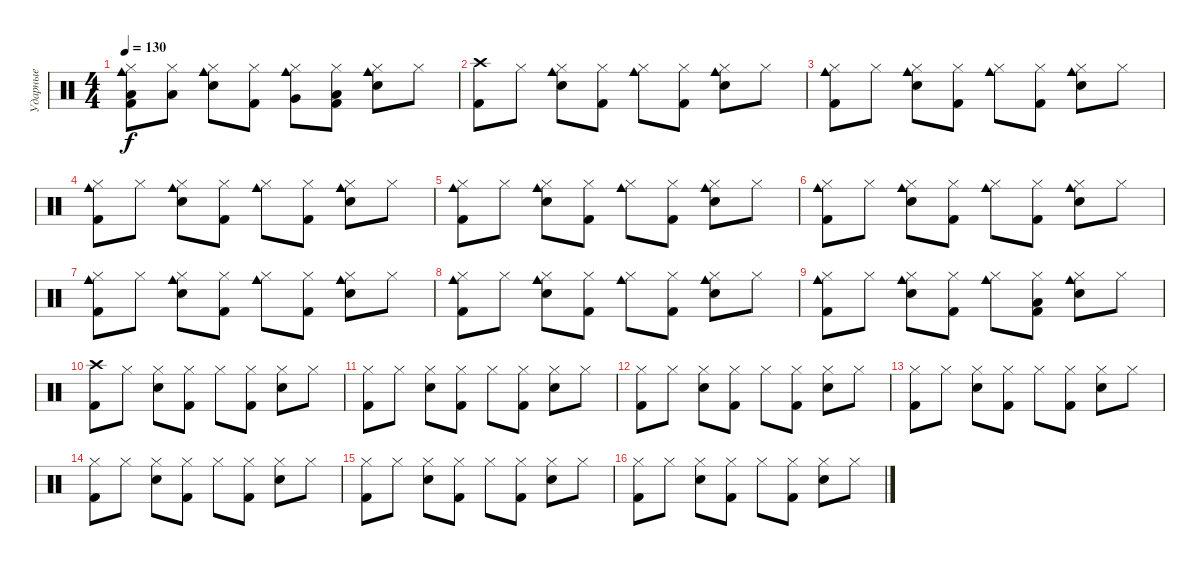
\track ("Ударные" "Ударные") {instrument percussion}
\staff {score}
\articulation defaults
\ts (4 4)
\tempo 130
\clef neutral
\ks c
("Hi-Hat (closed)" "Cowbell medium (hit)" "Low Tom (hit)" "Kick (hit) 2").8{dy f} ("Hi-Hat (closed)" "Low Tom (hit)").8 ("Hi-Hat (closed)" "Cowbell medium (hit)" "Snare (hit) 2").8 ("Hi-Hat (closed)" "Kick (hit) 2").8 ("Hi-Hat (closed)" "Cowbell medium (hit)" "Very Low Tom (hit)").8 ("Hi-Hat (closed)" "Low Floor Tom (hit)" "Kick (hit) 2").8 ("Hi-Hat (closed)" "Cowbell medium (hit)" "Snare (hit) 2").8 "Hi-Hat (closed)".8 |
("Crash high (hit)" "Kick (hit) 2").8 "Hi-Hat (closed)".8 ("Hi-Hat (closed)" "Cowbell medium (hit)" "Snare (hit) 2").8 ("Hi-Hat (closed)" "Kick (hit) 2").8 ("Hi-Hat (closed)" "Cowbell medium (hit)").8 ("Hi-Hat (closed)" "Kick (hit) 2").8 ("Hi-Hat (closed)" "Cowbell medium (hit)" "Snare (hit) 2").8 "Hi-Hat (closed)".8 |
("Hi-Hat (closed)" "Cowbell medium (hit)" "Kick (hit) 2").8 "Hi-Hat (closed)".8 ("Hi-Hat (closed)" "Cowbell medium (hit)" "Snare (hit) 2").8 ("Hi-Hat (closed)" "Kick (hit) 2").8 ("Hi-Hat (closed)" "Cowbell medium (hit)").8 ("Hi-Hat (closed)" "Kick (hit) 2").8 ("Hi-Hat (closed)" "Cowbell medium (hit)" "Snare (hit) 2").8 "Hi-Hat (closed)".8 |
("Hi-Hat (closed)" "Cowbell medium (hit)" "Kick (hit) 2").8 "Hi-Hat (closed)".8 ("Hi-Hat (closed)" "Cowbell medium (hit)" "Snare (hit) 2").8 ("Hi-Hat (closed)" "Kick (hit) 2").8 ("Hi-Hat (closed)" "Cowbell medium (hit)").8 ("Hi-Hat (closed)" "Kick (hit) 2").8 ("Hi-Hat (closed)" "Cowbell medium (hit)" "Snare (hit) 2").8 "Hi-Hat (closed)".8 |
("Hi-Hat (closed)" "Cowbell medium (hit)" "Kick (hit) 2").8 "Hi-Hat (closed)".8 ("Hi-Hat (closed)" "Cowbell medium (hit)" "Snare (hit) 2").8 ("Hi-Hat (closed)" "Kick (hit) 2").8 ("Hi-Hat (closed)" "Cowbell medium (hit)").8 ("Hi-Hat (closed)" "Kick (hit) 2").8 ("Hi-Hat (closed)" "Cowbell medium (hit)" "Snare (hit) 2").8 "Hi-Hat (closed)".8 |
("Hi-Hat (closed)" "Cowbell medium (hit)" "Kick (hit) 2").8 "Hi-Hat (closed)".8 ("Hi-Hat (closed)" "Cowbell medium (hit)" "Snare (hit) 2").8 ("Hi-Hat (closed)" "Kick (hit) 2").8 ("Hi-Hat (closed)" "Cowbell medium (hit)").8 ("Hi-Hat (closed)" "Kick (hit) 2").8 ("Hi-Hat (closed)" "Cowbell medium (hit)" "Snare (hit) 2").8 "Hi-Hat (closed)".8 |
("Hi-Hat (closed)" "Cowbell medium (hit)" "Kick (hit) 2").8 "Hi-Hat (closed)".8 ("Hi-Hat (closed)" "Cowbell medium (hit)" "Snare (hit) 2").8 ("Hi-Hat (closed)" "Kick (hit) 2").8 ("Hi-Hat (closed)" "Cowbell medium (hit)").8 ("Hi-Hat (closed)" "Kick (hit) 2").8 ("Hi-Hat (closed)" "Cowbell medium (hit)" "Snare (hit) 2").8 "Hi-Hat (closed)".8 |
("Hi-Hat (closed)" "Cowbell medium (hit)" "Kick (hit) 2").8 "Hi-Hat (closed)".8 ("Hi-Hat (closed)" "Cowbell medium (hit)" "Snare (hit) 2").8 ("Hi-Hat (closed)" "Kick (hit) 2").8 ("Hi-Hat (closed)" "Cowbell medium (hit)").8 ("Hi-Hat (closed)" "Kick (hit) 2").8 ("Hi-Hat (closed)" "Cowbell medium (hit)" "Snare (hit) 2").8 "Hi-Hat (closed)".8 |
("Hi-Hat (closed)" "Cowbell medium (hit)" "Kick (hit) 2").8 "Hi-Hat (closed)".8 ("Hi-Hat (closed)" "Cowbell medium (hit)" "Snare (hit) 2").8 ("Hi-Hat (closed)" "Kick (hit) 2").8 ("Hi-Hat (closed)" "Cowbell medium (hit)").8 ("Hi-Hat (closed)" "Low Tom (hit)" "Kick (hit) 2").8 ("Hi-Hat (closed)" "Cowbell medium (hit)" "Snare (hit) 2").8 "Hi-Hat (closed)".8 |
("Crash high (hit)" "Kick (hit) 2").8 "Hi-Hat (closed)".8 ("Hi-Hat (closed)" "Snare (hit) 2").8 ("Hi-Hat (closed)" "Kick (hit) 2").8 "Hi-Hat (closed)".8 ("Hi-Hat (closed)" "Kick (hit) 2").8 ("Hi-Hat (closed)" "Snare (hit) 2").8 "Hi-Hat (closed)".8 |
("Hi-Hat (closed)" "Kick (hit) 2").8 "Hi-Hat (closed)".8 ("Hi-Hat (closed)" "Snare (hit) 2").8 ("Hi-Hat (closed)" "Kick (hit) 2").8 "Hi-Hat (closed)".8 ("Hi-Hat (closed)" "Kick (hit) 2").8 ("Hi-Hat (closed)" "Snare (hit) 2").8 "Hi-Hat (closed)".8 |
("Hi-Hat (closed)" "Kick (hit) 2").8 "Hi-Hat (closed)".8 ("Hi-Hat (closed)" "Snare (hit) 2").8 ("Hi-Hat (closed)" "Kick (hit) 2").8 "Hi-Hat (closed)".8 ("Hi-Hat (closed)" "Kick (hit) 2").8 ("Hi-Hat (closed)" "Snare (hit) 2").8 "Hi-Hat (closed)".8 |
("Hi-Hat (closed)" "Kick (hit) 2").8 "Hi-Hat (closed)".8 ("Hi-Hat (closed)" "Snare (hit) 2").8 ("Hi-Hat (closed)" "Kick (hit) 2").8 "Hi-Hat (closed)".8 ("Hi-Hat (closed)" "Kick (hit) 2").8 ("Hi-Hat (closed)" "Snare (hit) 2").8 "Hi-Hat (closed)".8 |
("Hi-Hat (closed)" "Kick (hit) 2").8 "Hi-Hat (closed)".8 ("Hi-Hat (closed)" "Snare (hit) 2").8 ("Hi-Hat (closed)" "Kick (hit) 2").8 "Hi-Hat (closed)".8 ("Hi-Hat (closed)" "Kick (hit) 2").8 ("Hi-Hat (closed)" "Snare (hit) 2").8 "Hi-Hat (closed)".8 |
("Hi-Hat (closed)" "Kick (hit) 2").8 "Hi-Hat (closed)".8 ("Hi-Hat (closed)" "Snare (hit) 2").8 ("Hi-Hat (closed)" "Kick (hit) 2").8 "Hi-Hat (closed)".8 ("Hi-Hat (closed)" "Kick (hit) 2").8 ("Hi-Hat (closed)" "Snare (hit) 2").8 "Hi-Hat (closed)".8 |
("Hi-Hat (closed)" "Kick (hit) 2").8 "Hi-Hat (closed)".8 ("Hi-Hat (closed)" "Snare (hit) 2").8 ("Hi-Hat (closed)" "Kick (hit) 2").8 "Hi-Hat (closed)".8 ("Hi-Hat (closed)" "Kick (hit) 2").8 ("Hi-Hat (closed)" "Snare (hit) 2").8 "Hi-Hat (closed)".8
